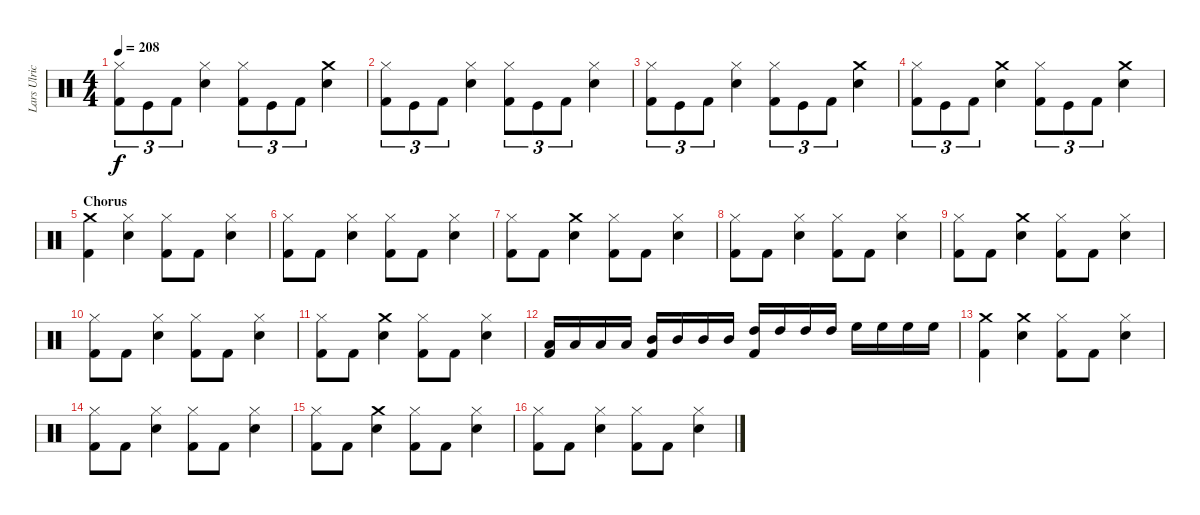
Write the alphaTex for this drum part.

\track ("Lars Ulrich (Drums)" "Lars Ulric") {instrument percussion}
\staff {score}
\articulation defaults
\ts (4 4)
\tempo 208
\clef neutral
\ks c
("Hi-Hat (closed)" "Kick (hit) 2").8{tu (3 2) dy f} "Kick (hit)".8{tu (3 2)} "Kick (hit) 2".8{tu (3 2)} ("Snare (hit) 2" "Hi-Hat (closed)").4 ("Hi-Hat (closed)" "Kick (hit) 2").8{tu (3 2)} "Kick (hit)".8{tu (3 2)} "Kick (hit) 2".8{tu (3 2)} ("Crash medium (hit)" "Snare (hit) 2").4 |
("Hi-Hat (closed)" "Kick (hit) 2").8{tu (3 2)} "Kick (hit)".8{tu (3 2)} "Kick (hit) 2".8{tu (3 2)} ("Snare (hit) 2" "Hi-Hat (closed)").4 ("Hi-Hat (closed)" "Kick (hit) 2").8{tu (3 2)} "Kick (hit)".8{tu (3 2)} "Kick (hit) 2".8{tu (3 2)} ("Hi-Hat (closed)" "Snare (hit) 2").4 |
("Hi-Hat (closed)" "Kick (hit) 2").8{tu (3 2)} "Kick (hit)".8{tu (3 2)} "Kick (hit) 2".8{tu (3 2)} ("Snare (hit) 2" "Hi-Hat (closed)").4 ("Hi-Hat (closed)" "Kick (hit) 2").8{tu (3 2)} "Kick (hit)".8{tu (3 2)} "Kick (hit) 2".8{tu (3 2)} ("Crash medium (hit)" "Snare (hit) 2").4 |
("Hi-Hat (closed)" "Kick (hit) 2").8{tu (3 2)} "Kick (hit)".8{tu (3 2)} "Kick (hit) 2".8{tu (3 2)} ("Crash medium (hit)" "Snare (hit) 2").4 ("Hi-Hat (closed)" "Kick (hit) 2").8{tu (3 2)} "Kick (hit)".8{tu (3 2)} "Kick (hit) 2".8{tu (3 2)} ("Crash medium (hit)" "Snare (hit) 2").4 |
\section ("" "Chorus")
("Kick (hit) 2" "Crash medium (hit)").4 ("Hi-Hat (closed)" "Snare (hit) 2").4 ("Hi-Hat (closed)" "Kick (hit) 2").8 "Kick (hit) 2".8 ("Snare (hit) 2" "Hi-Hat (closed)").4 |
("Kick (hit) 2" "Hi-Hat (closed)").8 "Kick (hit) 2".8 ("Snare (hit) 2" "Hi-Hat (closed)").4 ("Kick (hit) 2" "Hi-Hat (closed)").8 "Kick (hit) 2".8 ("Snare (hit) 2" "Hi-Hat (closed)").4 |
("Kick (hit) 2" "Hi-Hat (closed)").8 "Kick (hit) 2".8 ("Crash medium (hit)" "Snare (hit) 2").4 ("Kick (hit) 2" "Hi-Hat (closed)").8 "Kick (hit) 2".8 ("Snare (hit) 2" "Hi-Hat (closed)").4 |
("Kick (hit) 2" "Hi-Hat (closed)").8 "Kick (hit) 2".8 ("Snare (hit) 2" "Hi-Hat (closed)").4 ("Kick (hit) 2" "Hi-Hat (closed)").8 "Kick (hit) 2".8 ("Snare (hit) 2" "Hi-Hat (closed)").4 |
("Kick (hit) 2" "Hi-Hat (closed)").8 "Kick (hit) 2".8 ("Crash medium (hit)" "Snare (hit) 2").4 ("Kick (hit) 2" "Hi-Hat (closed)").8 "Kick (hit) 2".8 ("Snare (hit) 2" "Hi-Hat (closed)").4 |
("Kick (hit) 2" "Hi-Hat (closed)").8 "Kick (hit) 2".8 ("Snare (hit) 2" "Hi-Hat (closed)").4 ("Kick (hit) 2" "Hi-Hat (closed)").8 "Kick (hit) 2".8 ("Snare (hit) 2" "Hi-Hat (closed)").4 |
("Kick (hit) 2" "Hi-Hat (closed)").8 "Kick (hit) 2".8 ("Crash medium (hit)" "Snare (hit) 2").4 ("Kick (hit) 2" "Hi-Hat (closed)").8 "Kick (hit) 2".8 ("Snare (hit) 2" "Hi-Hat (closed)").4 |
("Low Tom (hit)" "Kick (hit) 2").16 "Low Tom (hit)".16 "Low Tom (hit)".16 "Low Tom (hit)".16 ("Mid Tom (hit)" "Kick (hit) 2").16 "Mid Tom (hit)".16 "Mid Tom (hit)".16 "Mid Tom (hit)".16 ("High Tom (hit)" "Kick (hit) 2").16 "High Tom (hit)".16 "High Tom (hit)".16 "High Tom (hit)".16 "High Floor Tom (hit)".16 "High Floor Tom (hit)".16 "High Floor Tom (hit)".16 "High Floor Tom (hit)".16 |
("Kick (hit) 2" "Crash medium (hit)").4 ("Snare (hit) 2" "Crash medium (hit)").4 ("Hi-Hat (closed)" "Kick (hit) 2").8 "Kick (hit) 2".8 ("Hi-Hat (closed)" "Snare (hit) 2").4 |
("Kick (hit) 2" "Hi-Hat (closed)").8 "Kick (hit) 2".8 ("Snare (hit) 2" "Hi-Hat (closed)").4 ("Kick (hit) 2" "Hi-Hat (closed)").8 "Kick (hit) 2".8 ("Snare (hit) 2" "Hi-Hat (closed)").4 |
("Kick (hit) 2" "Hi-Hat (closed)").8 "Kick (hit) 2".8 ("Crash medium (hit)" "Snare (hit) 2").4 ("Kick (hit) 2" "Hi-Hat (closed)").8 "Kick (hit) 2".8 ("Snare (hit) 2" "Hi-Hat (closed)").4 |
("Kick (hit) 2" "Hi-Hat (closed)").8 "Kick (hit) 2".8 ("Snare (hit) 2" "Hi-Hat (closed)").4 ("Kick (hit) 2" "Hi-Hat (closed)").8 "Kick (hit) 2".8 ("Snare (hit) 2" "Hi-Hat (closed)").4
